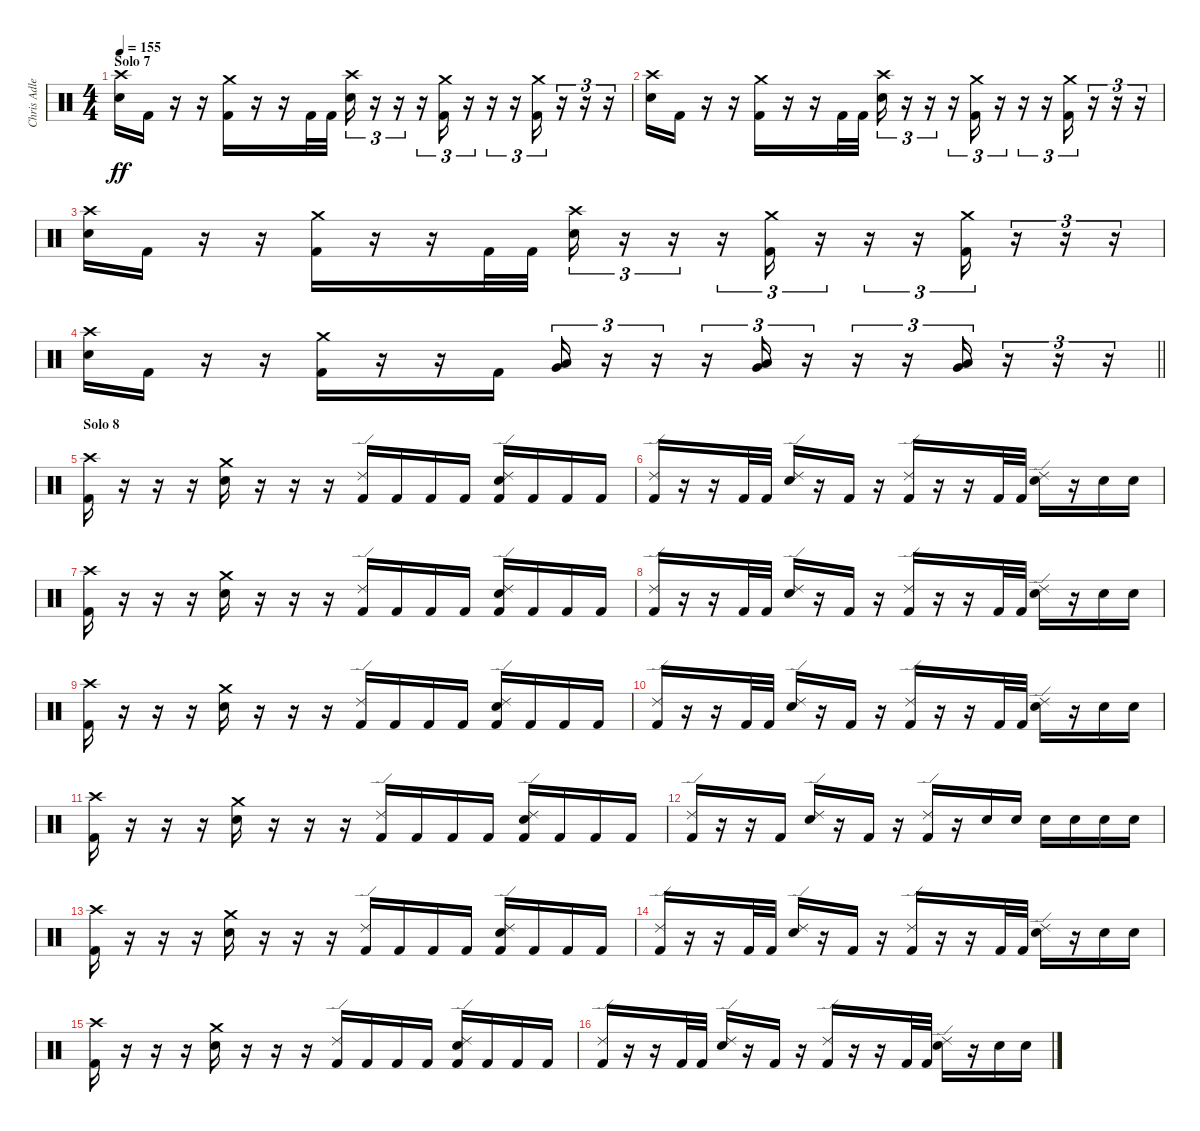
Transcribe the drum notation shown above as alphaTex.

\track ("Chris Adler" "Chris Adle") {instrument percussion}
\staff {score}
\articulation defaults
\ts (4 4)
\section ("" "Solo 7")
\tempo 155
\clef neutral
\ks c
("Crash high (hit)" "Snare (hit) 2").16{dy ff} "Kick (hit) 2".16 r.16 r.16 ("Crash medium (hit)" "Kick (hit) 2").16 r.16 r.16 "Kick (hit) 2".32 "Kick (hit) 2".32 ("Crash high (hit)" "Snare (hit) 2").16{tu (3 2)} r.16{tu (3 2)} r.16{tu (3 2)} r.16{tu (3 2)} ("Crash medium (hit)" "Kick (hit) 2").16{tu (3 2)} r.16{tu (3 2)} r.16{tu (3 2)} r.16{tu (3 2)} ("Crash medium (hit)" "Kick (hit) 2").16{tu (3 2)} r.16{tu (3 2)} r.16{tu (3 2)} r.16{tu (3 2)} |
("Crash high (hit)" "Snare (hit) 2").16 "Kick (hit) 2".16 r.16 r.16 ("Crash medium (hit)" "Kick (hit) 2").16 r.16 r.16 "Kick (hit) 2".32 "Kick (hit) 2".32 ("Crash high (hit)" "Snare (hit) 2").16{tu (3 2)} r.16{tu (3 2)} r.16{tu (3 2)} r.16{tu (3 2)} ("Crash medium (hit)" "Kick (hit) 2").16{tu (3 2)} r.16{tu (3 2)} r.16{tu (3 2)} r.16{tu (3 2)} ("Crash medium (hit)" "Kick (hit) 2").16{tu (3 2)} r.16{tu (3 2)} r.16{tu (3 2)} r.16{tu (3 2)} |
("Crash high (hit)" "Snare (hit) 2").16 "Kick (hit) 2".16 r.16 r.16 ("Crash medium (hit)" "Kick (hit) 2").16 r.16 r.16 "Kick (hit) 2".32 "Kick (hit) 2".32 ("Crash high (hit)" "Snare (hit) 2").16{tu (3 2)} r.16{tu (3 2)} r.16{tu (3 2)} r.16{tu (3 2)} ("Crash medium (hit)" "Kick (hit) 2").16{tu (3 2)} r.16{tu (3 2)} r.16{tu (3 2)} r.16{tu (3 2)} ("Crash medium (hit)" "Kick (hit) 2").16{tu (3 2)} r.16{tu (3 2)} r.16{tu (3 2)} r.16{tu (3 2)} |
\barLineRight lightlight
("Crash high (hit)" "Snare (hit) 2").16 "Kick (hit) 2".16 r.16 r.16 ("Crash medium (hit)" "Kick (hit) 2").16 r.16 r.16 "Kick (hit) 2".16 ("Low Tom (hit)" "Very Low Tom (hit)").16{tu (3 2)} r.16{tu (3 2)} r.16{tu (3 2)} r.16{tu (3 2)} ("Low Tom (hit)" "Very Low Tom (hit)").16{tu (3 2)} r.16{tu (3 2)} r.16{tu (3 2)} r.16{tu (3 2)} ("Low Tom (hit)" "Very Low Tom (hit)").16{tu (3 2)} r.16{tu (3 2)} r.16{tu (3 2)} r.16{tu (3 2)} |
\section ("" "Solo 8")
("Crash high (hit)" "Kick (hit) 2").16 r.16 r.16 r.16 ("Crash medium (hit)" "Snare (hit) 2").16 r.16 r.16 r.16 ("Ride (edge) 2" "Kick (hit) 2").16 "Kick (hit) 2".16 "Kick (hit) 2".16 "Kick (hit) 2".16 ("Ride (edge) 2" "Snare (hit) 2" "Kick (hit) 2").16 "Kick (hit) 2".16 "Kick (hit) 2".16 "Kick (hit) 2".16 |
("Ride (edge) 2" "Kick (hit) 2").16 r.16 r.16 "Kick (hit) 2".32 "Kick (hit) 2".32 ("Ride (edge) 2" "Snare (hit) 2").16 r.16 "Kick (hit) 2".16 r.16 ("Ride (edge) 2" "Kick (hit) 2").16 r.16 r.16 "Kick (hit) 2".32 "Kick (hit) 2".32 ("Ride (edge) 2" "Snare (hit) 2").16 r.16 "Snare (hit) 2".16 "Snare (hit) 2".16 |
("Crash high (hit)" "Kick (hit) 2").16 r.16 r.16 r.16 ("Crash medium (hit)" "Snare (hit) 2").16 r.16 r.16 r.16 ("Ride (edge) 2" "Kick (hit) 2").16 "Kick (hit) 2".16 "Kick (hit) 2".16 "Kick (hit) 2".16 ("Ride (edge) 2" "Snare (hit) 2" "Kick (hit) 2").16 "Kick (hit) 2".16 "Kick (hit) 2".16 "Kick (hit) 2".16 |
("Ride (edge) 2" "Kick (hit) 2").16 r.16 r.16 "Kick (hit) 2".32 "Kick (hit) 2".32 ("Ride (edge) 2" "Snare (hit) 2").16 r.16 "Kick (hit) 2".16 r.16 ("Ride (edge) 2" "Kick (hit) 2").16 r.16 r.16 "Kick (hit) 2".32 "Kick (hit) 2".32 ("Ride (edge) 2" "Snare (hit) 2").16 r.16 "Snare (hit) 2".16 "Snare (hit) 2".16 |
("Crash high (hit)" "Kick (hit) 2").16 r.16 r.16 r.16 ("Crash medium (hit)" "Snare (hit) 2").16 r.16 r.16 r.16 ("Ride (edge) 2" "Kick (hit) 2").16 "Kick (hit) 2".16 "Kick (hit) 2".16 "Kick (hit) 2".16 ("Ride (edge) 2" "Snare (hit) 2" "Kick (hit) 2").16 "Kick (hit) 2".16 "Kick (hit) 2".16 "Kick (hit) 2".16 |
("Ride (edge) 2" "Kick (hit) 2").16 r.16 r.16 "Kick (hit) 2".32 "Kick (hit) 2".32 ("Ride (edge) 2" "Snare (hit) 2").16 r.16 "Kick (hit) 2".16 r.16 ("Ride (edge) 2" "Kick (hit) 2").16 r.16 r.16 "Kick (hit) 2".32 "Kick (hit) 2".32 ("Ride (edge) 2" "Snare (hit) 2").16 r.16 "Snare (hit) 2".16 "Snare (hit) 2".16 |
("Crash high (hit)" "Kick (hit) 2").16 r.16 r.16 r.16 ("Crash medium (hit)" "Snare (hit) 2").16 r.16 r.16 r.16 ("Ride (edge) 2" "Kick (hit) 2").16 "Kick (hit) 2".16 "Kick (hit) 2".16 "Kick (hit) 2".16 ("Ride (edge) 2" "Snare (hit) 2" "Kick (hit) 2").16 "Kick (hit) 2".16 "Kick (hit) 2".16 "Kick (hit) 2".16 |
("Ride (edge) 2" "Kick (hit) 2").16 r.16 r.16 "Kick (hit) 2".16 ("Ride (edge) 2" "Snare (hit) 2").16 r.16 "Kick (hit) 2".16 r.16 ("Ride (edge) 2" "Kick (hit) 2").16 r.16 "Snare (hit) 2".16 "Snare (hit) 2".16 "Snare (hit) 2".16 "Snare (hit) 2".16 "Snare (hit) 2".16 "Snare (hit) 2".16 |
("Crash high (hit)" "Kick (hit) 2").16 r.16 r.16 r.16 ("Crash medium (hit)" "Snare (hit) 2").16 r.16 r.16 r.16 ("Ride (edge) 2" "Kick (hit) 2").16 "Kick (hit) 2".16 "Kick (hit) 2".16 "Kick (hit) 2".16 ("Ride (edge) 2" "Snare (hit) 2" "Kick (hit) 2").16 "Kick (hit) 2".16 "Kick (hit) 2".16 "Kick (hit) 2".16 |
("Ride (edge) 2" "Kick (hit) 2").16 r.16 r.16 "Kick (hit) 2".32 "Kick (hit) 2".32 ("Ride (edge) 2" "Snare (hit) 2").16 r.16 "Kick (hit) 2".16 r.16 ("Ride (edge) 2" "Kick (hit) 2").16 r.16 r.16 "Kick (hit) 2".32 "Kick (hit) 2".32 ("Ride (edge) 2" "Snare (hit) 2").16 r.16 "Snare (hit) 2".16 "Snare (hit) 2".16 |
("Crash high (hit)" "Kick (hit) 2").16 r.16 r.16 r.16 ("Crash medium (hit)" "Snare (hit) 2").16 r.16 r.16 r.16 ("Ride (edge) 2" "Kick (hit) 2").16 "Kick (hit) 2".16 "Kick (hit) 2".16 "Kick (hit) 2".16 ("Ride (edge) 2" "Snare (hit) 2" "Kick (hit) 2").16 "Kick (hit) 2".16 "Kick (hit) 2".16 "Kick (hit) 2".16 |
("Ride (edge) 2" "Kick (hit) 2").16 r.16 r.16 "Kick (hit) 2".32 "Kick (hit) 2".32 ("Ride (edge) 2" "Snare (hit) 2").16 r.16 "Kick (hit) 2".16 r.16 ("Ride (edge) 2" "Kick (hit) 2").16 r.16 r.16 "Kick (hit) 2".32 "Kick (hit) 2".32 ("Ride (edge) 2" "Snare (hit) 2").16 r.16 "Snare (hit) 2".16 "Snare (hit) 2".16
